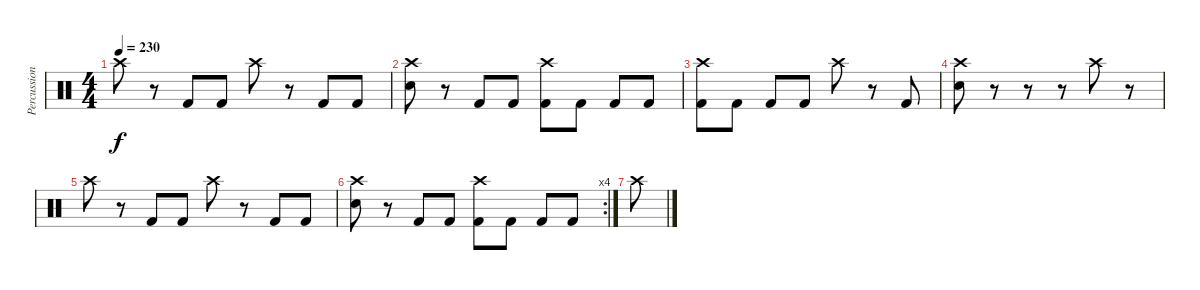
\track ("Percussion" "Percussion") {instrument percussion}
\staff {score}
\articulation defaults
\ts (4 4)
\tempo 230
\clef neutral
\ks c "Crash high (hit)".8{dy f}
r.8 "Kick (hit) 2".8 "Kick (hit) 2".8 "Crash high (hit)".8 r.8 "Kick (hit) 2".8 "Kick (hit) 2".8 |
("Crash high (hit)" "Electric Snare (hit)").8 r.8 "Kick (hit) 2".8 "Kick (hit) 2".8 ("Crash high (hit)" "Kick (hit) 2").8 "Kick (hit) 2".8 "Kick (hit) 2".8 "Kick (hit) 2".8 |
("Crash high (hit)" "Kick (hit) 2").8 "Kick (hit) 2".8 "Kick (hit) 2".8 "Kick (hit) 2".8 "Crash high (hit)".8 r.8 "Kick (hit) 2".8 |
("Crash high (hit)" "Electric Snare (hit)").8 r.8 r.8 r.8 "Crash high (hit)".8 r.8 |
"Crash high (hit)".8 r.8 "Kick (hit) 2".8 "Kick (hit) 2".8 "Crash high (hit)".8 r.8 "Kick (hit) 2".8 "Kick (hit) 2".8 |
\rc 4
("Crash high (hit)" "Electric Snare (hit)").8 r.8 "Kick (hit) 2".8 "Kick (hit) 2".8 ("Crash high (hit)" "Kick (hit) 2").8 "Kick (hit) 2".8 "Kick (hit) 2".8 "Kick (hit) 2".8 |
"Crash high (hit)".8
